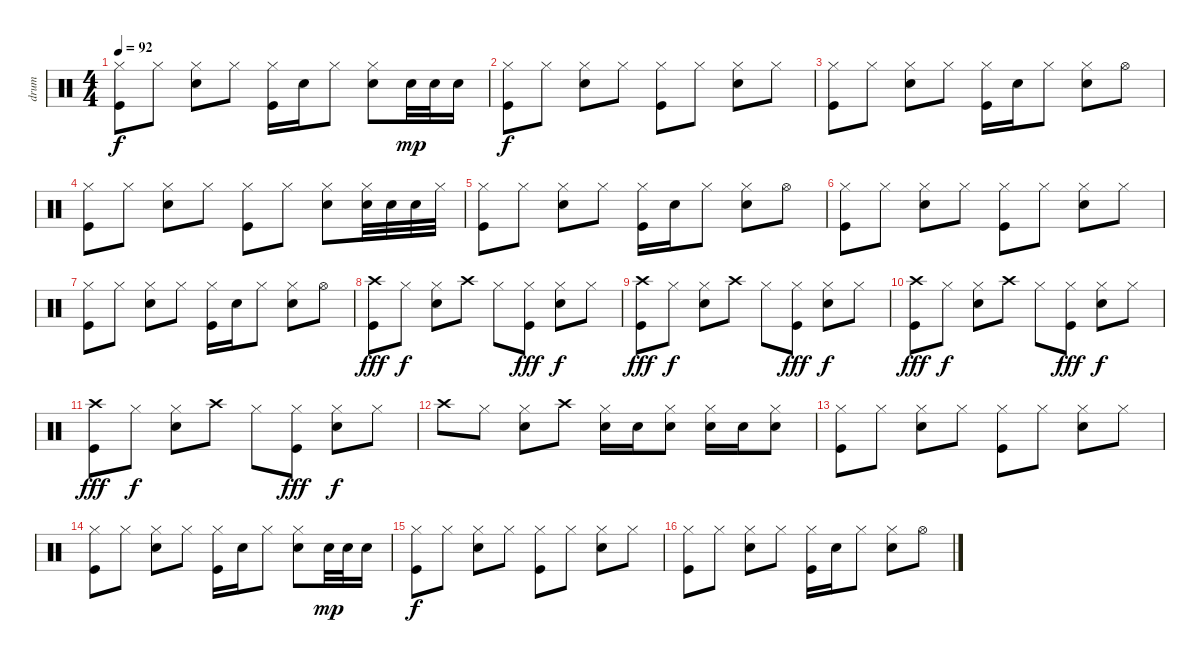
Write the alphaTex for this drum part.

\track ("drum" "drum") {instrument percussion}
\staff {score}
\articulation defaults
\ts (4 4)
\tempo 92
\clef neutral
\ks c
("Hi-Hat (closed)" "Kick (hit)").8{dy f} "Hi-Hat (closed)".8 ("Hi-Hat (closed)" "Snare (hit) 2").8 "Hi-Hat (closed)".8 ("Hi-Hat (closed)" "Kick (hit)").16 "Snare (hit) 2".16 "Hi-Hat (closed)".8 ("Hi-Hat (closed)" "Snare (hit) 2").8 "Snare (hit) 2".32{dy mp} "Snare (hit) 2".32 "Snare (hit) 2".16 |
("Hi-Hat (closed)" "Kick (hit)").8{dy f} "Hi-Hat (closed)".8 ("Hi-Hat (closed)" "Snare (hit) 2").8 "Hi-Hat (closed)".8 ("Hi-Hat (closed)" "Kick (hit)").8 "Hi-Hat (closed)".8 ("Hi-Hat (closed)" "Snare (hit) 2").8 "Hi-Hat (closed)".8 |
("Hi-Hat (closed)" "Kick (hit)").8 "Hi-Hat (closed)".8 ("Hi-Hat (closed)" "Snare (hit) 2").8 "Hi-Hat (closed)".8 ("Hi-Hat (closed)" "Kick (hit)").16 "Snare (hit) 2".16 "Hi-Hat (closed)".8 ("Hi-Hat (closed)" "Snare (hit) 2").8 "Hi-Hat (open)".8 |
("Hi-Hat (closed)" "Kick (hit)").8 "Hi-Hat (closed)".8 ("Hi-Hat (closed)" "Snare (hit) 2").8 "Hi-Hat (closed)".8 ("Hi-Hat (closed)" "Kick (hit)").8 "Hi-Hat (closed)".8 ("Hi-Hat (closed)" "Snare (hit) 2").8 ("Hi-Hat (closed)" "Snare (hit) 2").32 "Snare (hit) 2".32 "Snare (hit) 2".32 "Hi-Hat (closed)".32 |
("Hi-Hat (closed)" "Kick (hit)").8 "Hi-Hat (closed)".8 ("Hi-Hat (closed)" "Snare (hit) 2").8 "Hi-Hat (closed)".8 ("Hi-Hat (closed)" "Kick (hit)").16 "Snare (hit) 2".16 "Hi-Hat (closed)".8 ("Hi-Hat (closed)" "Snare (hit) 2").8 "Hi-Hat (open)".8 |
("Hi-Hat (closed)" "Kick (hit)").8 "Hi-Hat (closed)".8 ("Hi-Hat (closed)" "Snare (hit) 2").8 "Hi-Hat (closed)".8 ("Hi-Hat (closed)" "Kick (hit)").8 "Hi-Hat (closed)".8 ("Hi-Hat (closed)" "Snare (hit) 2").8 "Hi-Hat (closed)".8 |
("Hi-Hat (closed)" "Kick (hit)").8 "Hi-Hat (closed)".8 ("Hi-Hat (closed)" "Snare (hit) 2").8 "Hi-Hat (closed)".8 ("Hi-Hat (closed)" "Kick (hit)").16 "Snare (hit) 2".16 "Hi-Hat (closed)".8 ("Hi-Hat (closed)" "Snare (hit) 2").8 "Hi-Hat (open)".8 |
("Crash high (hit)" "Kick (hit)").8{dy fff} "Hi-Hat (closed)".8{dy f} ("Hi-Hat (closed)" "Snare (hit) 2").8 "Crash high (hit)".8 "Hi-Hat (closed)".8 ("Hi-Hat (closed)" "Kick (hit)").8{dy fff} ("Hi-Hat (closed)" "Snare (hit) 2").8{dy f} "Hi-Hat (closed)".8 |
("Crash high (hit)" "Kick (hit)").8{dy fff} "Hi-Hat (closed)".8{dy f} ("Hi-Hat (closed)" "Snare (hit) 2").8 "Crash high (hit)".8 "Hi-Hat (closed)".8 ("Hi-Hat (closed)" "Kick (hit)").8{dy fff} ("Hi-Hat (closed)" "Snare (hit) 2").8{dy f} "Hi-Hat (closed)".8 |
("Crash high (hit)" "Kick (hit)").8{dy fff} "Hi-Hat (closed)".8{dy f} ("Hi-Hat (closed)" "Snare (hit) 2").8 "Crash high (hit)".8 "Hi-Hat (closed)".8 ("Hi-Hat (closed)" "Kick (hit)").8{dy fff} ("Hi-Hat (closed)" "Snare (hit) 2").8{dy f} "Hi-Hat (closed)".8 |
("Crash high (hit)" "Kick (hit)").8{dy fff} "Hi-Hat (closed)".8{dy f} ("Hi-Hat (closed)" "Snare (hit) 2").8 "Crash high (hit)".8 "Hi-Hat (closed)".8 ("Hi-Hat (closed)" "Kick (hit)").8{dy fff} ("Hi-Hat (closed)" "Snare (hit) 2").8{dy f} "Hi-Hat (closed)".8 |
"Crash high (hit)".8 "Hi-Hat (closed)".8 ("Hi-Hat (closed)" "Snare (hit) 2").8 "Crash high (hit)".8 ("Hi-Hat (closed)" "Snare (hit) 2").16 "Snare (hit) 2".16 ("Hi-Hat (closed)" "Snare (hit) 2").8 ("Hi-Hat (closed)" "Snare (hit) 2").16 "Snare (hit) 2".16 ("Hi-Hat (closed)" "Snare (hit) 2").8 |
("Hi-Hat (closed)" "Kick (hit)").8 "Hi-Hat (closed)".8 ("Hi-Hat (closed)" "Snare (hit) 2").8 "Hi-Hat (closed)".8 ("Hi-Hat (closed)" "Kick (hit)").8 "Hi-Hat (closed)".8 ("Hi-Hat (closed)" "Snare (hit) 2").8 "Hi-Hat (closed)".8 |
("Hi-Hat (closed)" "Kick (hit)").8 "Hi-Hat (closed)".8 ("Hi-Hat (closed)" "Snare (hit) 2").8 "Hi-Hat (closed)".8 ("Hi-Hat (closed)" "Kick (hit)").16 "Snare (hit) 2".16 "Hi-Hat (closed)".8 ("Hi-Hat (closed)" "Snare (hit) 2").8 "Snare (hit) 2".32{dy mp} "Snare (hit) 2".32 "Snare (hit) 2".16 |
("Hi-Hat (closed)" "Kick (hit)").8{dy f} "Hi-Hat (closed)".8 ("Hi-Hat (closed)" "Snare (hit) 2").8 "Hi-Hat (closed)".8 ("Hi-Hat (closed)" "Kick (hit)").8 "Hi-Hat (closed)".8 ("Hi-Hat (closed)" "Snare (hit) 2").8 "Hi-Hat (closed)".8 |
("Hi-Hat (closed)" "Kick (hit)").8 "Hi-Hat (closed)".8 ("Hi-Hat (closed)" "Snare (hit) 2").8 "Hi-Hat (closed)".8 ("Hi-Hat (closed)" "Kick (hit)").16 "Snare (hit) 2".16 "Hi-Hat (closed)".8 ("Hi-Hat (closed)" "Snare (hit) 2").8 "Hi-Hat (open)".8
